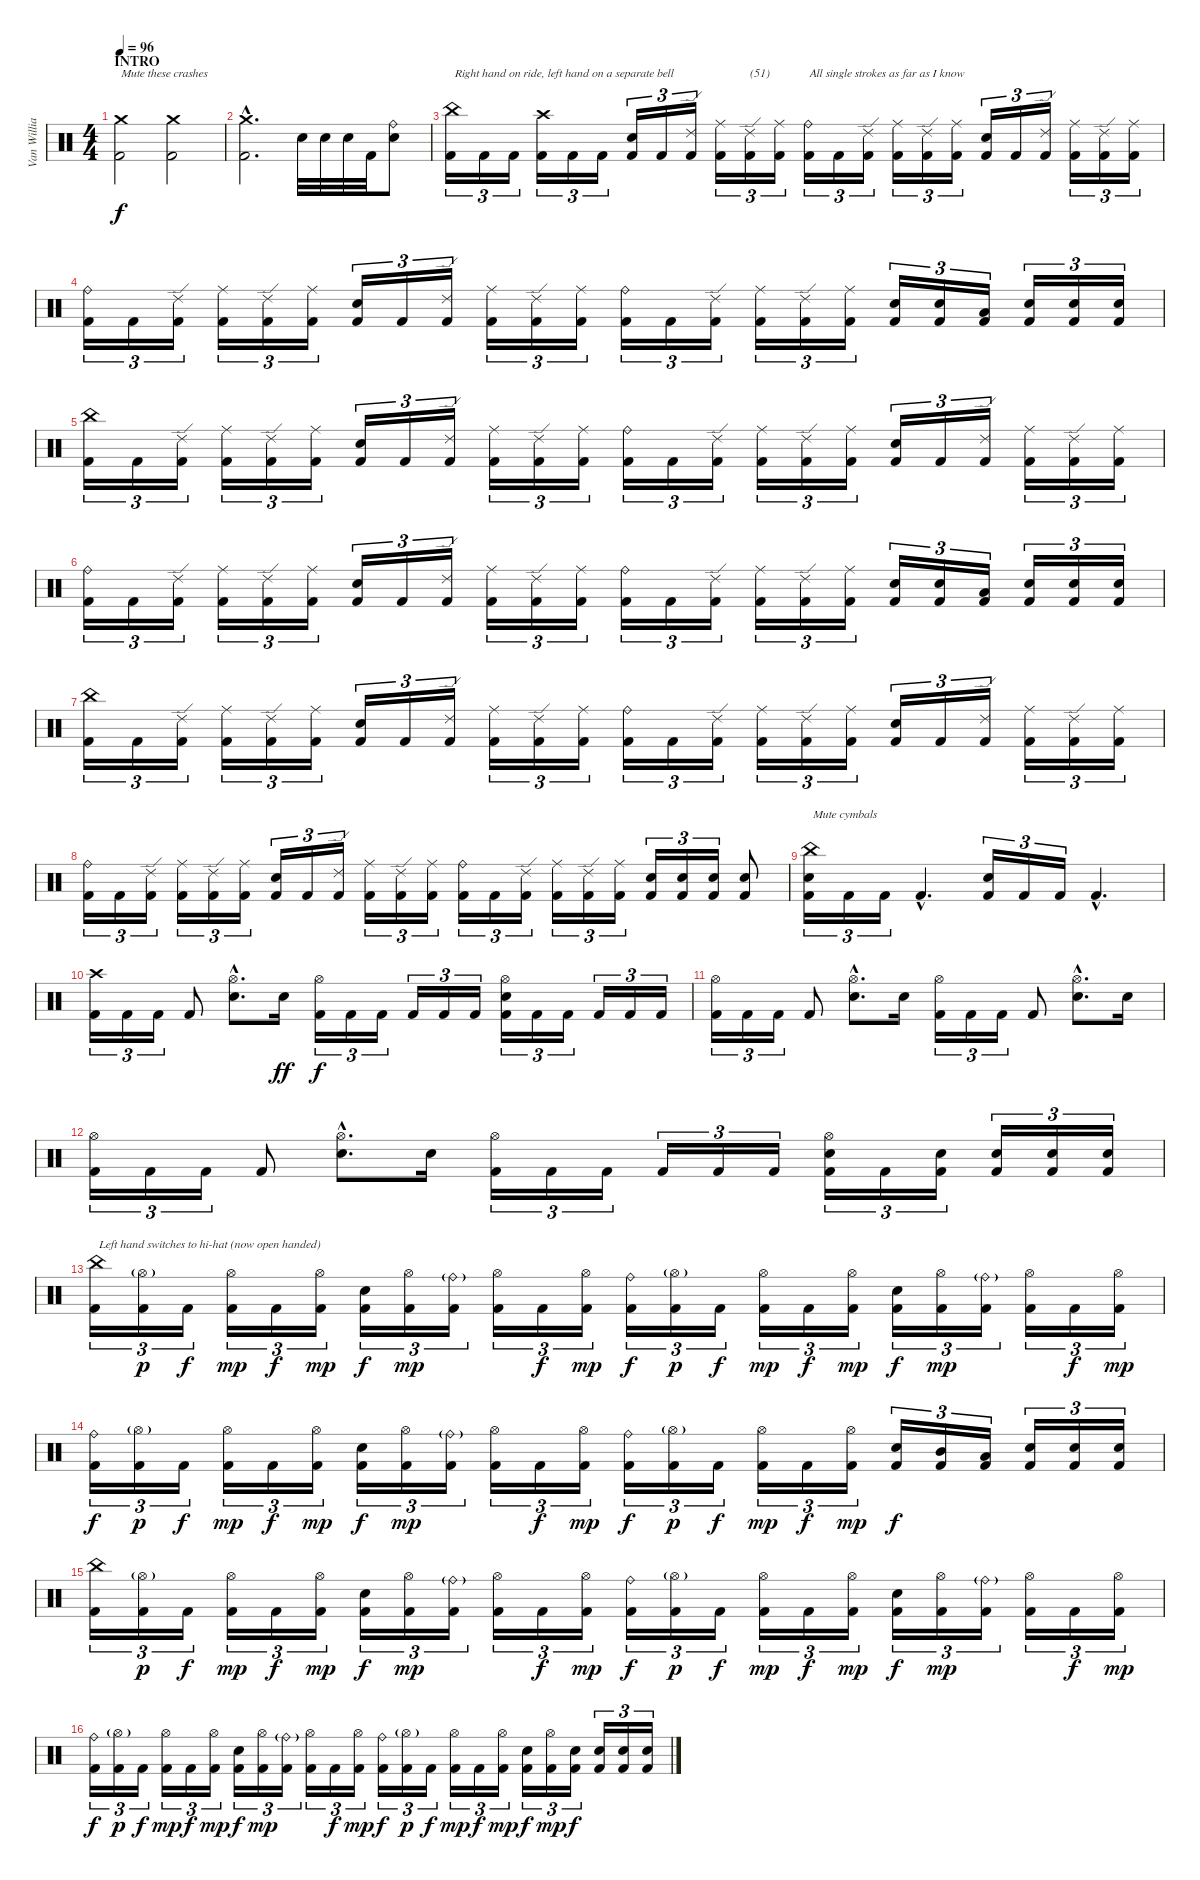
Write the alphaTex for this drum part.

\track ("Van Williams" "Van Willia") {instrument percussion}
\staff {score}
\articulation defaults
\ts (4 4)
\section ("" "INTRO")
\tempo 96
\clef neutral
\ks c
("Crash medium (hit)" "Kick (hit) 2").2{txt "Mute these crashes" dy f} ("Crash medium (hit)" "Kick (hit) 2").2 |
("Crash medium (hit)"{hac} "Kick (hit) 2"{hac}).2{d} "Electric Snare (hit)".32 "Electric Snare (hit)".32 "Electric Snare (hit)".32 "Kick (hit) 2".32 ("Ride (bell)" "Electric Snare (hit)").8 |
("China (hit)" "Kick (hit) 2").16{tu (3 2) txt "Right hand on ride, left hand on a separate bell"} "Kick (hit) 2".16{tu (3 2)} "Kick (hit) 2".16{tu (3 2)} ("Crash high (hit)" "Kick (hit) 2").16{tu (3 2)} "Kick (hit) 2".16{tu (3 2)} "Kick (hit) 2".16{tu (3 2)} ("Electric Snare (hit)" "Kick (hit) 2").16{tu (3 2)} "Kick (hit) 2".16{tu (3 2)} ("Ride (edge) 2" "Kick (hit) 2").16{tu (3 2)} ("Ride (middle)" "Kick (hit) 2").16{tu (3 2)} ("Ride (edge) 2" "Kick (hit) 2").16{tu (3 2) txt "(51)"} ("Ride (middle)" "Kick (hit) 2").16{tu (3 2)} ("Ride (bell)" "Kick (hit) 2").16{tu (3 2) txt "All single strokes as far as I know"} "Kick (hit) 2".16{tu (3 2)} ("Ride (edge) 2" "Kick (hit) 2").16{tu (3 2)} ("Ride (middle)" "Kick (hit) 2").16{tu (3 2)} ("Ride (edge) 2" "Kick (hit) 2").16{tu (3 2)} ("Ride (middle)" "Kick (hit) 2").16{tu (3 2)} ("Electric Snare (hit)" "Kick (hit) 2").16{tu (3 2)} "Kick (hit) 2".16{tu (3 2)} ("Ride (edge) 2" "Kick (hit) 2").16{tu (3 2)} ("Ride (middle)" "Kick (hit) 2").16{tu (3 2)} ("Ride (edge) 2" "Kick (hit) 2").16{tu (3 2)} ("Ride (middle)" "Kick (hit) 2").16{tu (3 2)} |
\section ("" "")
("Ride (bell)" "Kick (hit) 2").16{tu (3 2)} "Kick (hit) 2".16{tu (3 2)} ("Ride (edge) 2" "Kick (hit) 2").16{tu (3 2)} ("Ride (middle)" "Kick (hit) 2").16{tu (3 2)} ("Ride (edge) 2" "Kick (hit) 2").16{tu (3 2)} ("Ride (middle)" "Kick (hit) 2").16{tu (3 2)} ("Electric Snare (hit)" "Kick (hit) 2").16{tu (3 2)} "Kick (hit) 2".16{tu (3 2)} ("Ride (edge) 2" "Kick (hit) 2").16{tu (3 2)} ("Ride (middle)" "Kick (hit) 2").16{tu (3 2)} ("Ride (edge) 2" "Kick (hit) 2").16{tu (3 2)} ("Ride (middle)" "Kick (hit) 2").16{tu (3 2)} ("Ride (bell)" "Kick (hit) 2").16{tu (3 2)} "Kick (hit) 2".16{tu (3 2)} ("Ride (edge) 2" "Kick (hit) 2").16{tu (3 2)} ("Ride (middle)" "Kick (hit) 2").16{tu (3 2)} ("Ride (edge) 2" "Kick (hit) 2").16{tu (3 2)} ("Ride (middle)" "Kick (hit) 2").16{tu (3 2)} ("Electric Snare (hit)" "Kick (hit) 2").16{tu (3 2)} ("Electric Snare (hit)" "Kick (hit) 2").16{tu (3 2)} ("Low Tom (hit)" "Kick (hit) 2").16{tu (3 2)} ("Electric Snare (hit)" "Kick (hit) 2").16{tu (3 2)} ("Electric Snare (hit)" "Kick (hit) 2").16{tu (3 2)} ("Electric Snare (hit)" "Kick (hit) 2").16{tu (3 2)} |
("China (hit)" "Kick (hit) 2").16{tu (3 2)} "Kick (hit) 2".16{tu (3 2)} ("Ride (edge) 2" "Kick (hit) 2").16{tu (3 2)} ("Ride (middle)" "Kick (hit) 2").16{tu (3 2)} ("Ride (edge) 2" "Kick (hit) 2").16{tu (3 2)} ("Ride (middle)" "Kick (hit) 2").16{tu (3 2)} ("Electric Snare (hit)" "Kick (hit) 2").16{tu (3 2)} "Kick (hit) 2".16{tu (3 2)} ("Ride (edge) 2" "Kick (hit) 2").16{tu (3 2)} ("Ride (middle)" "Kick (hit) 2").16{tu (3 2)} ("Ride (edge) 2" "Kick (hit) 2").16{tu (3 2)} ("Ride (middle)" "Kick (hit) 2").16{tu (3 2)} ("Ride (bell)" "Kick (hit) 2").16{tu (3 2)} "Kick (hit) 2".16{tu (3 2)} ("Ride (edge) 2" "Kick (hit) 2").16{tu (3 2)} ("Ride (middle)" "Kick (hit) 2").16{tu (3 2)} ("Ride (edge) 2" "Kick (hit) 2").16{tu (3 2)} ("Ride (middle)" "Kick (hit) 2").16{tu (3 2)} ("Electric Snare (hit)" "Kick (hit) 2").16{tu (3 2)} "Kick (hit) 2".16{tu (3 2)} ("Ride (edge) 2" "Kick (hit) 2").16{tu (3 2)} ("Ride (middle)" "Kick (hit) 2").16{tu (3 2)} ("Ride (edge) 2" "Kick (hit) 2").16{tu (3 2)} ("Ride (middle)" "Kick (hit) 2").16{tu (3 2)} |
("Ride (bell)" "Kick (hit) 2").16{tu (3 2)} "Kick (hit) 2".16{tu (3 2)} ("Ride (edge) 2" "Kick (hit) 2").16{tu (3 2)} ("Ride (middle)" "Kick (hit) 2").16{tu (3 2)} ("Ride (edge) 2" "Kick (hit) 2").16{tu (3 2)} ("Ride (middle)" "Kick (hit) 2").16{tu (3 2)} ("Electric Snare (hit)" "Kick (hit) 2").16{tu (3 2)} "Kick (hit) 2".16{tu (3 2)} ("Ride (edge) 2" "Kick (hit) 2").16{tu (3 2)} ("Ride (middle)" "Kick (hit) 2").16{tu (3 2)} ("Ride (edge) 2" "Kick (hit) 2").16{tu (3 2)} ("Ride (middle)" "Kick (hit) 2").16{tu (3 2)} ("Ride (bell)" "Kick (hit) 2").16{tu (3 2)} "Kick (hit) 2".16{tu (3 2)} ("Ride (edge) 2" "Kick (hit) 2").16{tu (3 2)} ("Ride (middle)" "Kick (hit) 2").16{tu (3 2)} ("Ride (edge) 2" "Kick (hit) 2").16{tu (3 2)} ("Ride (middle)" "Kick (hit) 2").16{tu (3 2)} ("Electric Snare (hit)" "Kick (hit) 2").16{tu (3 2)} ("Electric Snare (hit)" "Kick (hit) 2").16{tu (3 2)} ("Low Tom (hit)" "Kick (hit) 2").16{tu (3 2)} ("Electric Snare (hit)" "Kick (hit) 2").16{tu (3 2)} ("Electric Snare (hit)" "Kick (hit) 2").16{tu (3 2)} ("Electric Snare (hit)" "Kick (hit) 2").16{tu (3 2)} |
("China (hit)" "Kick (hit) 2").16{tu (3 2)} "Kick (hit) 2".16{tu (3 2)} ("Ride (edge) 2" "Kick (hit) 2").16{tu (3 2)} ("Ride (middle)" "Kick (hit) 2").16{tu (3 2)} ("Ride (edge) 2" "Kick (hit) 2").16{tu (3 2)} ("Ride (middle)" "Kick (hit) 2").16{tu (3 2)} ("Electric Snare (hit)" "Kick (hit) 2").16{tu (3 2)} "Kick (hit) 2".16{tu (3 2)} ("Ride (edge) 2" "Kick (hit) 2").16{tu (3 2)} ("Ride (middle)" "Kick (hit) 2").16{tu (3 2)} ("Ride (edge) 2" "Kick (hit) 2").16{tu (3 2)} ("Ride (middle)" "Kick (hit) 2").16{tu (3 2)} ("Ride (bell)" "Kick (hit) 2").16{tu (3 2)} "Kick (hit) 2".16{tu (3 2)} ("Ride (edge) 2" "Kick (hit) 2").16{tu (3 2)} ("Ride (middle)" "Kick (hit) 2").16{tu (3 2)} ("Ride (edge) 2" "Kick (hit) 2").16{tu (3 2)} ("Ride (middle)" "Kick (hit) 2").16{tu (3 2)} ("Electric Snare (hit)" "Kick (hit) 2").16{tu (3 2)} "Kick (hit) 2".16{tu (3 2)} ("Ride (edge) 2" "Kick (hit) 2").16{tu (3 2)} ("Ride (middle)" "Kick (hit) 2").16{tu (3 2)} ("Ride (edge) 2" "Kick (hit) 2").16{tu (3 2)} ("Ride (middle)" "Kick (hit) 2").16{tu (3 2)} |
("Ride (bell)" "Kick (hit) 2").16{tu (3 2)} "Kick (hit) 2".16{tu (3 2)} ("Ride (edge) 2" "Kick (hit) 2").16{tu (3 2)} ("Ride (middle)" "Kick (hit) 2").16{tu (3 2)} ("Ride (edge) 2" "Kick (hit) 2").16{tu (3 2)} ("Ride (middle)" "Kick (hit) 2").16{tu (3 2)} ("Electric Snare (hit)" "Kick (hit) 2").16{tu (3 2)} "Kick (hit) 2".16{tu (3 2)} ("Ride (edge) 2" "Kick (hit) 2").16{tu (3 2)} ("Ride (middle)" "Kick (hit) 2").16{tu (3 2)} ("Ride (edge) 2" "Kick (hit) 2").16{tu (3 2)} ("Ride (middle)" "Kick (hit) 2").16{tu (3 2)} ("Ride (bell)" "Kick (hit) 2").16{tu (3 2)} "Kick (hit) 2".16{tu (3 2)} ("Ride (edge) 2" "Kick (hit) 2").16{tu (3 2)} ("Ride (middle)" "Kick (hit) 2").16{tu (3 2)} ("Ride (edge) 2" "Kick (hit) 2").16{tu (3 2)} ("Ride (middle)" "Kick (hit) 2").16{tu (3 2)} ("Electric Snare (hit)" "Kick (hit) 2").16{tu (3 2)} ("Electric Snare (hit)" "Kick (hit) 2").16{tu (3 2)} ("Electric Snare (hit)" "Kick (hit) 2").16{tu (3 2)} ("Electric Snare (hit)" "Kick (hit) 2").8 |
\section ("" "")
("China (hit)" "Electric Snare (hit)" "Kick (hit) 2").16{tu (3 2) txt "Mute cymbals"} "Kick (hit) 2".16{tu (3 2)} "Kick (hit) 2".16{tu (3 2)} "Kick (hit) 2"{hac}.4{d} ("Electric Snare (hit)" "Kick (hit) 2").16{tu (3 2)} "Kick (hit) 2".16{tu (3 2)} "Kick (hit) 2".16{tu (3 2)} "Kick (hit) 2"{hac}.4{d} |
("Crash high (hit)" "Kick (hit) 2").16{tu (3 2)} "Kick (hit) 2".16{tu (3 2)} "Kick (hit) 2".16{tu (3 2)} "Kick (hit) 2".8 ("Hi-Hat (open)"{hac} "Electric Snare (hit)"{hac}).8{d} "Electric Snare (hit)".16{dy ff} ("Hi-Hat (open)" "Kick (hit) 2").16{tu (3 2) dy f} "Kick (hit) 2".16{tu (3 2)} "Kick (hit) 2".16{tu (3 2)} "Kick (hit) 2".16{tu (3 2)} "Kick (hit) 2".16{tu (3 2)} "Kick (hit) 2".16{tu (3 2)} ("Hi-Hat (open)" "Electric Snare (hit)" "Kick (hit) 2").16{tu (3 2)} "Kick (hit) 2".16{tu (3 2)} "Kick (hit) 2".16{tu (3 2)} "Kick (hit) 2".16{tu (3 2)} "Kick (hit) 2".16{tu (3 2)} "Kick (hit) 2".16{tu (3 2)} |
("Hi-Hat (open)" "Kick (hit) 2").16{tu (3 2)} "Kick (hit) 2".16{tu (3 2)} "Kick (hit) 2".16{tu (3 2)} "Kick (hit) 2".8 ("Hi-Hat (open)"{hac} "Electric Snare (hit)"{hac}).8{d} "Electric Snare (hit)".16 ("Hi-Hat (open)" "Kick (hit) 2").16{tu (3 2)} "Kick (hit) 2".16{tu (3 2)} "Kick (hit) 2".16{tu (3 2)} "Kick (hit) 2".8 ("Hi-Hat (open)"{hac} "Electric Snare (hit)"{hac}).8{d} "Electric Snare (hit)".16 |
("Hi-Hat (open)" "Kick (hit) 2").16{tu (3 2)} "Kick (hit) 2".16{tu (3 2)} "Kick (hit) 2".16{tu (3 2)} "Kick (hit) 2".8 ("Hi-Hat (open)"{hac} "Electric Snare (hit)"{hac}).8{d} "Electric Snare (hit)".16 ("Hi-Hat (open)" "Kick (hit) 2").16{tu (3 2)} "Kick (hit) 2".16{tu (3 2)} "Kick (hit) 2".16{tu (3 2)} "Kick (hit) 2".16{tu (3 2)} "Kick (hit) 2".16{tu (3 2)} "Kick (hit) 2".16{tu (3 2)} ("Hi-Hat (open)" "Electric Snare (hit)" "Kick (hit) 2").16{tu (3 2)} "Kick (hit) 2".16{tu (3 2)} ("Electric Snare (hit)" "Kick (hit) 2").16{tu (3 2)} ("Electric Snare (hit)" "Kick (hit) 2").16{tu (3 2)} ("Electric Snare (hit)" "Kick (hit) 2").16{tu (3 2)} ("Electric Snare (hit)" "Kick (hit) 2").16{tu (3 2)} |
\section ("" "")
("China (hit)" "Kick (hit) 2").16{tu (3 2) txt "Left hand switches to hi-hat (now open handed)"} ("Hi-Hat (open)"{g} "Kick (hit) 2").16{tu (3 2) dy p} "Kick (hit) 2".16{tu (3 2) dy f} ("Hi-Hat (open)" "Kick (hit) 2").16{tu (3 2) dy mp} "Kick (hit) 2".16{tu (3 2) dy f} ("Hi-Hat (open)" "Kick (hit) 2").16{tu (3 2) dy mp} ("Electric Snare (hit)" "Kick (hit) 2").16{tu (3 2) dy f} ("Hi-Hat (open)" "Kick (hit) 2").16{tu (3 2) dy mp} ("Ride (bell)"{g} "Kick (hit) 2").16{tu (3 2)} ("Hi-Hat (open)" "Kick (hit) 2").16{tu (3 2)} "Kick (hit) 2".16{tu (3 2) dy f} ("Hi-Hat (open)" "Kick (hit) 2").16{tu (3 2) dy mp} ("Ride (bell)" "Kick (hit) 2").16{tu (3 2) dy f} ("Hi-Hat (open)"{g} "Kick (hit) 2").16{tu (3 2) dy p} "Kick (hit) 2".16{tu (3 2) dy f} ("Hi-Hat (open)" "Kick (hit) 2").16{tu (3 2) dy mp} "Kick (hit) 2".16{tu (3 2) dy f} ("Hi-Hat (open)" "Kick (hit) 2").16{tu (3 2) dy mp} ("Electric Snare (hit)" "Kick (hit) 2").16{tu (3 2) dy f} ("Hi-Hat (open)" "Kick (hit) 2").16{tu (3 2) dy mp} ("Ride (bell)"{g} "Kick (hit) 2").16{tu (3 2)} ("Hi-Hat (open)" "Kick (hit) 2").16{tu (3 2)} "Kick (hit) 2".16{tu (3 2) dy f} ("Hi-Hat (open)" "Kick (hit) 2").16{tu (3 2) dy mp} |
("Ride (bell)" "Kick (hit) 2").16{tu (3 2) dy f} ("Hi-Hat (open)"{g} "Kick (hit) 2").16{tu (3 2) dy p} "Kick (hit) 2".16{tu (3 2) dy f} ("Hi-Hat (open)" "Kick (hit) 2").16{tu (3 2) dy mp} "Kick (hit) 2".16{tu (3 2) dy f} ("Hi-Hat (open)" "Kick (hit) 2").16{tu (3 2) dy mp} ("Electric Snare (hit)" "Kick (hit) 2").16{tu (3 2) dy f} ("Hi-Hat (open)" "Kick (hit) 2").16{tu (3 2) dy mp} ("Ride (bell)"{g} "Kick (hit) 2").16{tu (3 2)} ("Hi-Hat (open)" "Kick (hit) 2").16{tu (3 2)} "Kick (hit) 2".16{tu (3 2) dy f} ("Hi-Hat (open)" "Kick (hit) 2").16{tu (3 2) dy mp} ("Ride (bell)" "Kick (hit) 2").16{tu (3 2) dy f} ("Hi-Hat (open)"{g} "Kick (hit) 2").16{tu (3 2) dy p} "Kick (hit) 2".16{tu (3 2) dy f} ("Hi-Hat (open)" "Kick (hit) 2").16{tu (3 2) dy mp} "Kick (hit) 2".16{tu (3 2) dy f} ("Hi-Hat (open)" "Kick (hit) 2").16{tu (3 2) dy mp} ("Electric Snare (hit)" "Kick (hit) 2").16{tu (3 2) dy f} ("Mid Tom (hit)" "Kick (hit) 2").16{tu (3 2)} ("Low Tom (hit)" "Kick (hit) 2").16{tu (3 2)} ("Electric Snare (hit)" "Kick (hit) 2").16{tu (3 2)} ("Electric Snare (hit)" "Kick (hit) 2").16{tu (3 2)} ("Electric Snare (hit)" "Kick (hit) 2").16{tu (3 2)} |
("China (hit)" "Kick (hit) 2").16{tu (3 2)} ("Hi-Hat (open)"{g} "Kick (hit) 2").16{tu (3 2) dy p} "Kick (hit) 2".16{tu (3 2) dy f} ("Hi-Hat (open)" "Kick (hit) 2").16{tu (3 2) dy mp} "Kick (hit) 2".16{tu (3 2) dy f} ("Hi-Hat (open)" "Kick (hit) 2").16{tu (3 2) dy mp} ("Electric Snare (hit)" "Kick (hit) 2").16{tu (3 2) dy f} ("Hi-Hat (open)" "Kick (hit) 2").16{tu (3 2) dy mp} ("Ride (bell)"{g} "Kick (hit) 2").16{tu (3 2)} ("Hi-Hat (open)" "Kick (hit) 2").16{tu (3 2)} "Kick (hit) 2".16{tu (3 2) dy f} ("Hi-Hat (open)" "Kick (hit) 2").16{tu (3 2) dy mp} ("Ride (bell)" "Kick (hit) 2").16{tu (3 2) dy f} ("Hi-Hat (open)"{g} "Kick (hit) 2").16{tu (3 2) dy p} "Kick (hit) 2".16{tu (3 2) dy f} ("Hi-Hat (open)" "Kick (hit) 2").16{tu (3 2) dy mp} "Kick (hit) 2".16{tu (3 2) dy f} ("Hi-Hat (open)" "Kick (hit) 2").16{tu (3 2) dy mp} ("Electric Snare (hit)" "Kick (hit) 2").16{tu (3 2) dy f} ("Hi-Hat (open)" "Kick (hit) 2").16{tu (3 2) dy mp} ("Ride (bell)"{g} "Kick (hit) 2").16{tu (3 2)} ("Hi-Hat (open)" "Kick (hit) 2").16{tu (3 2)} "Kick (hit) 2".16{tu (3 2) dy f} ("Hi-Hat (open)" "Kick (hit) 2").16{tu (3 2) dy mp} |
("Ride (bell)" "Kick (hit) 2").16{tu (3 2) dy f} ("Hi-Hat (open)"{g} "Kick (hit) 2").16{tu (3 2) dy p} "Kick (hit) 2".16{tu (3 2) dy f} ("Hi-Hat (open)" "Kick (hit) 2").16{tu (3 2) dy mp} "Kick (hit) 2".16{tu (3 2) dy f} ("Hi-Hat (open)" "Kick (hit) 2").16{tu (3 2) dy mp} ("Electric Snare (hit)" "Kick (hit) 2").16{tu (3 2) dy f} ("Hi-Hat (open)" "Kick (hit) 2").16{tu (3 2) dy mp} ("Ride (bell)"{g} "Kick (hit) 2").16{tu (3 2)} ("Hi-Hat (open)" "Kick (hit) 2").16{tu (3 2)} "Kick (hit) 2".16{tu (3 2) dy f} ("Hi-Hat (open)" "Kick (hit) 2").16{tu (3 2) dy mp} ("Ride (bell)" "Kick (hit) 2").16{tu (3 2) dy f} ("Hi-Hat (open)"{g} "Kick (hit) 2").16{tu (3 2) dy p} "Kick (hit) 2".16{tu (3 2) dy f} ("Hi-Hat (open)" "Kick (hit) 2").16{tu (3 2) dy mp} "Kick (hit) 2".16{tu (3 2) dy f} ("Hi-Hat (open)" "Kick (hit) 2").16{tu (3 2) dy mp} ("Electric Snare (hit)" "Kick (hit) 2").16{tu (3 2) dy f} ("Hi-Hat (open)" "Kick (hit) 2").16{tu (3 2) dy mp} ("Electric Snare (hit)" "Kick (hit) 2").16{tu (3 2) dy f} ("Electric Snare (hit)" "Kick (hit) 2").16{tu (3 2)} ("Electric Snare (hit)" "Kick (hit) 2").16{tu (3 2)} ("Electric Snare (hit)" "Kick (hit) 2").16{tu (3 2)}
